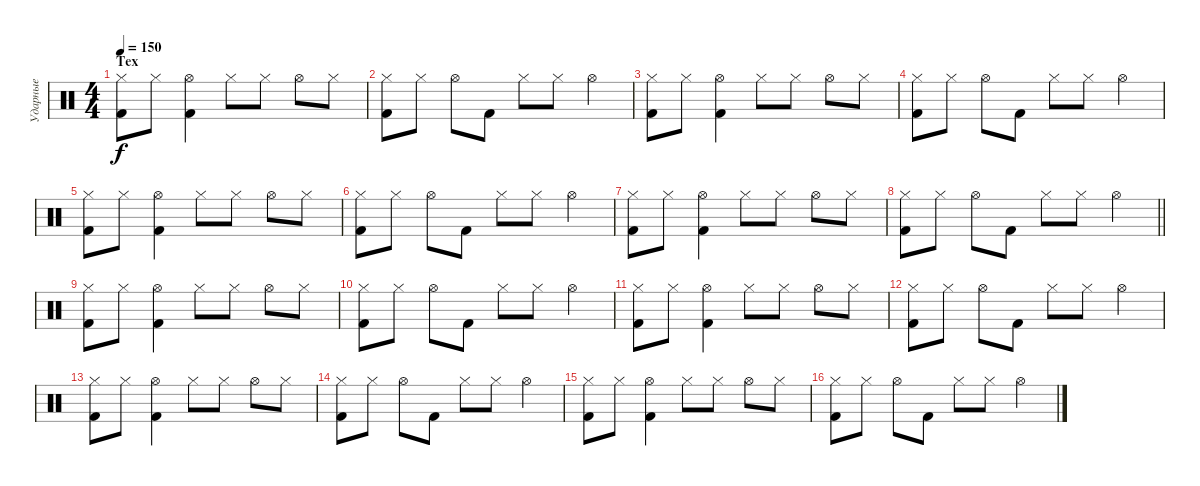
\track ("Ударные" "Ударные") {instrument percussion}
\staff {score}
\articulation defaults
\ts (4 4)
\section ("" "Тех ")
\tempo 150
\clef neutral
\ks c
("Hi-Hat (closed)" "Kick (hit) 2").8{dy f} "Hi-Hat (closed)".8 ("Hi-Hat (open)" "Kick (hit) 2").4 "Hi-Hat (closed)".8 "Hi-Hat (closed)".8 "Hi-Hat (open)".8 "Hi-Hat (closed)".8 |
("Hi-Hat (closed)" "Kick (hit) 2").8 "Hi-Hat (closed)".8 "Hi-Hat (open)".8 "Kick (hit) 2".8 "Hi-Hat (closed)".8 "Hi-Hat (closed)".8 "Hi-Hat (open)".4 |
("Hi-Hat (closed)" "Kick (hit) 2").8 "Hi-Hat (closed)".8 ("Hi-Hat (open)" "Kick (hit) 2").4 "Hi-Hat (closed)".8 "Hi-Hat (closed)".8 "Hi-Hat (open)".8 "Hi-Hat (closed)".8 |
("Hi-Hat (closed)" "Kick (hit) 2").8 "Hi-Hat (closed)".8 "Hi-Hat (open)".8 "Kick (hit) 2".8 "Hi-Hat (closed)".8 "Hi-Hat (closed)".8 "Hi-Hat (open)".4 |
("Hi-Hat (closed)" "Kick (hit) 2").8 "Hi-Hat (closed)".8 ("Hi-Hat (open)" "Kick (hit) 2").4 "Hi-Hat (closed)".8 "Hi-Hat (closed)".8 "Hi-Hat (open)".8 "Hi-Hat (closed)".8 |
("Hi-Hat (closed)" "Kick (hit) 2").8 "Hi-Hat (closed)".8 "Hi-Hat (open)".8 "Kick (hit) 2".8 "Hi-Hat (closed)".8 "Hi-Hat (closed)".8 "Hi-Hat (open)".4 |
("Hi-Hat (closed)" "Kick (hit) 2").8 "Hi-Hat (closed)".8 ("Hi-Hat (open)" "Kick (hit) 2").4 "Hi-Hat (closed)".8 "Hi-Hat (closed)".8 "Hi-Hat (open)".8 "Hi-Hat (closed)".8 |
\barLineRight lightlight
("Hi-Hat (closed)" "Kick (hit) 2").8 "Hi-Hat (closed)".8 "Hi-Hat (open)".8 "Kick (hit) 2".8 "Hi-Hat (closed)".8 "Hi-Hat (closed)".8 "Hi-Hat (open)".4 |
("Hi-Hat (closed)" "Kick (hit) 2").8 "Hi-Hat (closed)".8 ("Hi-Hat (open)" "Kick (hit) 2").4 "Hi-Hat (closed)".8 "Hi-Hat (closed)".8 "Hi-Hat (open)".8 "Hi-Hat (closed)".8 |
("Hi-Hat (closed)" "Kick (hit) 2").8 "Hi-Hat (closed)".8 "Hi-Hat (open)".8 "Kick (hit) 2".8 "Hi-Hat (closed)".8 "Hi-Hat (closed)".8 "Hi-Hat (open)".4 |
("Hi-Hat (closed)" "Kick (hit) 2").8 "Hi-Hat (closed)".8 ("Hi-Hat (open)" "Kick (hit) 2").4 "Hi-Hat (closed)".8 "Hi-Hat (closed)".8 "Hi-Hat (open)".8 "Hi-Hat (closed)".8 |
("Hi-Hat (closed)" "Kick (hit) 2").8 "Hi-Hat (closed)".8 "Hi-Hat (open)".8 "Kick (hit) 2".8 "Hi-Hat (closed)".8 "Hi-Hat (closed)".8 "Hi-Hat (open)".4 |
("Hi-Hat (closed)" "Kick (hit) 2").8 "Hi-Hat (closed)".8 ("Hi-Hat (open)" "Kick (hit) 2").4 "Hi-Hat (closed)".8 "Hi-Hat (closed)".8 "Hi-Hat (open)".8 "Hi-Hat (closed)".8 |
("Hi-Hat (closed)" "Kick (hit) 2").8 "Hi-Hat (closed)".8 "Hi-Hat (open)".8 "Kick (hit) 2".8 "Hi-Hat (closed)".8 "Hi-Hat (closed)".8 "Hi-Hat (open)".4 |
("Hi-Hat (closed)" "Kick (hit) 2").8 "Hi-Hat (closed)".8 ("Hi-Hat (open)" "Kick (hit) 2").4 "Hi-Hat (closed)".8 "Hi-Hat (closed)".8 "Hi-Hat (open)".8 "Hi-Hat (closed)".8 |
("Hi-Hat (closed)" "Kick (hit) 2").8 "Hi-Hat (closed)".8 "Hi-Hat (open)".8 "Kick (hit) 2".8 "Hi-Hat (closed)".8 "Hi-Hat (closed)".8 "Hi-Hat (open)".4
